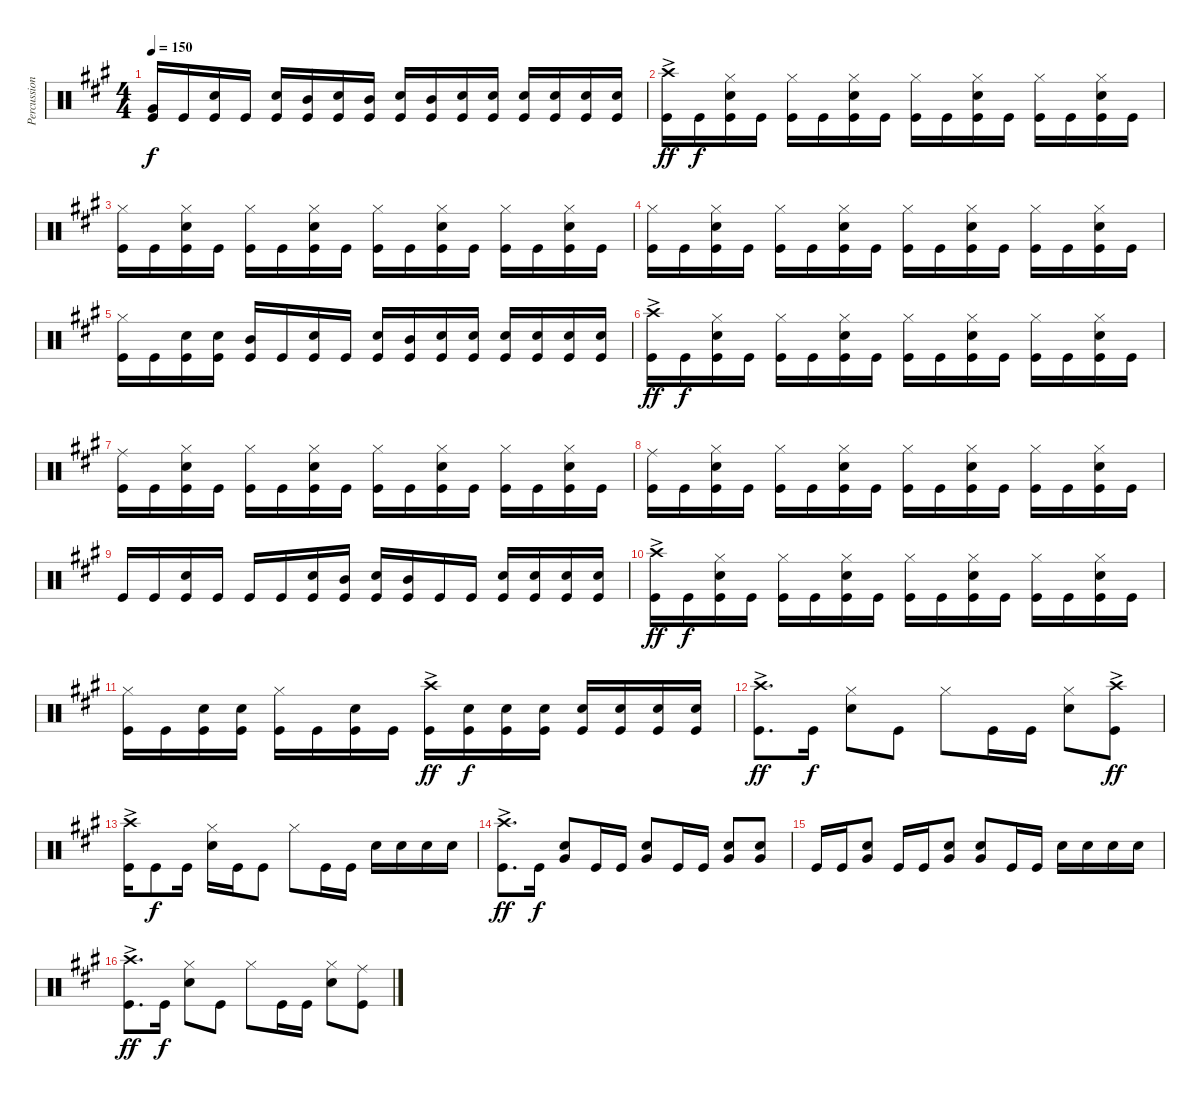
\track ("Percussion" "Percussion") {instrument percussion}
\staff {score}
\articulation defaults
\ts (4 4)
\tempo 150
\clef neutral
\ks a
("Kick (hit)" "Very Low Tom (hit)").16{dy f} "Kick (hit)".16 ("Kick (hit)" "Snare (hit) 2").16 "Kick (hit)".16 ("Kick (hit)" "Snare (hit) 2").16 ("Kick (hit)" "Mid Tom (hit)").16 ("Kick (hit)" "Snare (hit) 2").16 ("Kick (hit)" "Mid Tom (hit)").16 ("Kick (hit)" "Snare (hit) 2").16 ("Kick (hit)" "Mid Tom (hit)").16 ("Kick (hit)" "Snare (hit) 2").16 ("Kick (hit)" "Snare (hit) 2").16 ("Kick (hit)" "Snare (hit) 2").16 ("Kick (hit)" "Snare (hit) 2").16 ("Kick (hit)" "Snare (hit) 2").16 ("Kick (hit)" "Snare (hit) 2").16 |
("Crash high (hit)"{ac} "Kick (hit)").16{dy ff} "Kick (hit)".16{dy f} ("Hi-Hat (closed)" "Kick (hit)" "Snare (hit) 2").16 "Kick (hit)".16 ("Hi-Hat (closed)" "Kick (hit)").16 "Kick (hit)".16 ("Hi-Hat (closed)" "Kick (hit)" "Snare (hit) 2").16 "Kick (hit)".16 ("Kick (hit)" "Hi-Hat (closed)").16 "Kick (hit)".16 ("Kick (hit)" "Hi-Hat (closed)" "Snare (hit) 2").16 "Kick (hit)".16 ("Kick (hit)" "Hi-Hat (closed)").16 "Kick (hit)".16 ("Kick (hit)" "Hi-Hat (closed)" "Snare (hit) 2").16 "Kick (hit)".16 |
("Hi-Hat (closed)" "Kick (hit)").16 "Kick (hit)".16 ("Hi-Hat (closed)" "Kick (hit)" "Snare (hit) 2").16 "Kick (hit)".16 ("Hi-Hat (closed)" "Kick (hit)").16 "Kick (hit)".16 ("Hi-Hat (closed)" "Kick (hit)" "Snare (hit) 2").16 "Kick (hit)".16 ("Kick (hit)" "Hi-Hat (closed)").16 "Kick (hit)".16 ("Kick (hit)" "Hi-Hat (closed)" "Snare (hit) 2").16 "Kick (hit)".16 ("Kick (hit)" "Hi-Hat (closed)").16 "Kick (hit)".16 ("Kick (hit)" "Hi-Hat (closed)" "Snare (hit) 2").16 "Kick (hit)".16 |
("Hi-Hat (closed)" "Kick (hit)").16 "Kick (hit)".16 ("Hi-Hat (closed)" "Kick (hit)" "Snare (hit) 2").16 "Kick (hit)".16 ("Hi-Hat (closed)" "Kick (hit)").16 "Kick (hit)".16 ("Hi-Hat (closed)" "Kick (hit)" "Snare (hit) 2").16 "Kick (hit)".16 ("Kick (hit)" "Hi-Hat (closed)").16 "Kick (hit)".16 ("Kick (hit)" "Hi-Hat (closed)" "Snare (hit) 2").16 "Kick (hit)".16 ("Kick (hit)" "Hi-Hat (closed)").16 "Kick (hit)".16 ("Kick (hit)" "Hi-Hat (closed)" "Snare (hit) 2").16 "Kick (hit)".16 |
("Kick (hit)" "Hi-Hat (closed)").16 "Kick (hit)".16 ("Kick (hit)" "Snare (hit) 2").16 ("Kick (hit)" "Snare (hit) 2").16 ("Kick (hit)" "Mid Tom (hit)").16 "Kick (hit)".16 ("Kick (hit)" "Snare (hit) 2").16 "Kick (hit)".16 ("Kick (hit)" "Snare (hit) 2").16 ("Kick (hit)" "Mid Tom (hit)").16 ("Kick (hit)" "Snare (hit) 2").16 ("Kick (hit)" "Snare (hit) 2").16 ("Kick (hit)" "Snare (hit) 2").16 ("Kick (hit)" "Snare (hit) 2").16 ("Kick (hit)" "Snare (hit) 2").16 ("Kick (hit)" "Snare (hit) 2").16 |
("Crash high (hit)"{ac} "Kick (hit)").16{dy ff} "Kick (hit)".16{dy f} ("Hi-Hat (closed)" "Kick (hit)" "Snare (hit) 2").16 "Kick (hit)".16 ("Hi-Hat (closed)" "Kick (hit)").16 "Kick (hit)".16 ("Hi-Hat (closed)" "Kick (hit)" "Snare (hit) 2").16 "Kick (hit)".16 ("Kick (hit)" "Hi-Hat (closed)").16 "Kick (hit)".16 ("Kick (hit)" "Hi-Hat (closed)" "Snare (hit) 2").16 "Kick (hit)".16 ("Kick (hit)" "Hi-Hat (closed)").16 "Kick (hit)".16 ("Kick (hit)" "Hi-Hat (closed)" "Snare (hit) 2").16 "Kick (hit)".16 |
("Ride (middle)" "Kick (hit)").16 "Kick (hit)".16 ("Hi-Hat (closed)" "Kick (hit)" "Snare (hit) 2").16 "Kick (hit)".16 ("Hi-Hat (closed)" "Kick (hit)").16 "Kick (hit)".16 ("Hi-Hat (closed)" "Kick (hit)" "Snare (hit) 2").16 "Kick (hit)".16 ("Kick (hit)" "Hi-Hat (closed)").16 "Kick (hit)".16 ("Kick (hit)" "Hi-Hat (closed)" "Snare (hit) 2").16 "Kick (hit)".16 ("Kick (hit)" "Hi-Hat (closed)").16 "Kick (hit)".16 ("Kick (hit)" "Hi-Hat (closed)" "Snare (hit) 2").16 "Kick (hit)".16 |
("Ride (middle)" "Kick (hit)").16 "Kick (hit)".16 ("Hi-Hat (closed)" "Kick (hit)" "Snare (hit) 2").16 "Kick (hit)".16 ("Hi-Hat (closed)" "Kick (hit)").16 "Kick (hit)".16 ("Hi-Hat (closed)" "Kick (hit)" "Snare (hit) 2").16 "Kick (hit)".16 ("Kick (hit)" "Hi-Hat (closed)").16 "Kick (hit)".16 ("Kick (hit)" "Hi-Hat (closed)" "Snare (hit) 2").16 "Kick (hit)".16 ("Kick (hit)" "Hi-Hat (closed)").16 "Kick (hit)".16 ("Kick (hit)" "Hi-Hat (closed)" "Snare (hit) 2").16 "Kick (hit)".16 |
"Kick (hit)".16 "Kick (hit)".16 ("Kick (hit)" "Snare (hit) 2").16 "Kick (hit)".16 "Kick (hit)".16 "Kick (hit)".16 ("Kick (hit)" "Snare (hit) 2").16 ("Kick (hit)" "Mid Tom (hit)").16 ("Kick (hit)" "Snare (hit) 2").16 ("Kick (hit)" "Mid Tom (hit)").16 "Kick (hit)".16 "Kick (hit)".16 ("Kick (hit)" "Snare (hit) 2").16 ("Kick (hit)" "Snare (hit) 2").16 ("Kick (hit)" "Snare (hit) 2").16 ("Kick (hit)" "Snare (hit) 2").16 |
("Crash high (hit)"{ac} "Kick (hit)").16{dy ff} "Kick (hit)".16{dy f} ("Hi-Hat (closed)" "Kick (hit)" "Snare (hit) 2").16 "Kick (hit)".16 ("Hi-Hat (closed)" "Kick (hit)").16 "Kick (hit)".16 ("Hi-Hat (closed)" "Kick (hit)" "Snare (hit) 2").16 "Kick (hit)".16 ("Kick (hit)" "Hi-Hat (closed)").16 "Kick (hit)".16 ("Kick (hit)" "Hi-Hat (closed)" "Snare (hit) 2").16 "Kick (hit)".16 ("Kick (hit)" "Hi-Hat (closed)").16 "Kick (hit)".16 ("Kick (hit)" "Hi-Hat (closed)" "Snare (hit) 2").16 "Kick (hit)".16 |
("Kick (hit)" "Hi-Hat (closed)").16 "Kick (hit)".16 ("Kick (hit)" "Snare (hit) 2").16 ("Kick (hit)" "Snare (hit) 2").16 ("Kick (hit)" "Hi-Hat (closed)").16 "Kick (hit)".16 ("Kick (hit)" "Snare (hit) 2").16 "Kick (hit)".16 ("Kick (hit)" "Crash high (hit)"{ac}).16{dy ff} ("Kick (hit)" "Snare (hit) 2").16{dy f} ("Kick (hit)" "Snare (hit) 2").16 ("Kick (hit)" "Snare (hit) 2").16 ("Kick (hit)" "Snare (hit) 2").16 ("Kick (hit)" "Snare (hit) 2").16 ("Kick (hit)" "Snare (hit) 2").16 ("Kick (hit)" "Snare (hit) 2").16 |
("Crash high (hit)"{ac} "Kick (hit)").8{d dy ff} "Kick (hit)".16{dy f} ("Hi-Hat (closed)" "Snare (hit) 2").8 "Kick (hit)".8 "Hi-Hat (closed)".8 "Kick (hit)".16 "Kick (hit)".16 ("Hi-Hat (closed)" "Snare (hit) 2").8 ("Crash high (hit)"{ac} "Kick (hit)").8{dy ff} |
("Crash high (hit)"{ac} "Kick (hit)").16 "Kick (hit)".8{dy f} "Kick (hit)".16 ("Hi-Hat (closed)" "Snare (hit) 2").16 "Kick (hit)".16 "Kick (hit)".8 "Hi-Hat (closed)".8 "Kick (hit)".16 "Kick (hit)".16 "Snare (hit) 2".16 "Snare (hit) 2".16 "Snare (hit) 2".16 "Snare (hit) 2".16 |
("Crash high (hit)"{ac} "Kick (hit)").8{d dy ff} "Kick (hit)".16{dy f} ("Snare (hit) 2" "Very Low Tom (hit)").8 "Kick (hit)".16 "Kick (hit)".16 ("Snare (hit) 2" "Very Low Tom (hit)").8 "Kick (hit)".16 "Kick (hit)".16 ("Snare (hit) 2" "Very Low Tom (hit)").8 ("Snare (hit) 2" "Very Low Tom (hit)").8 |
"Kick (hit)".16 "Kick (hit)".16 ("Snare (hit) 2" "Very Low Tom (hit)").8 "Kick (hit)".16 "Kick (hit)".16 ("Snare (hit) 2" "Very Low Tom (hit)").8 ("Snare (hit) 2" "Very Low Tom (hit)").8 "Kick (hit)".16 "Kick (hit)".16 "Snare (hit) 2".16 "Snare (hit) 2".16 "Snare (hit) 2".16 "Snare (hit) 2".16 |
("Crash high (hit)"{ac} "Kick (hit)").8{d dy ff} "Kick (hit)".16{dy f} ("Hi-Hat (closed)" "Snare (hit) 2").8 "Kick (hit)".8 "Hi-Hat (closed)".8 "Kick (hit)".16 "Kick (hit)".16 ("Hi-Hat (closed)" "Snare (hit) 2").8 ("Ride (middle)" "Kick (hit)").8
